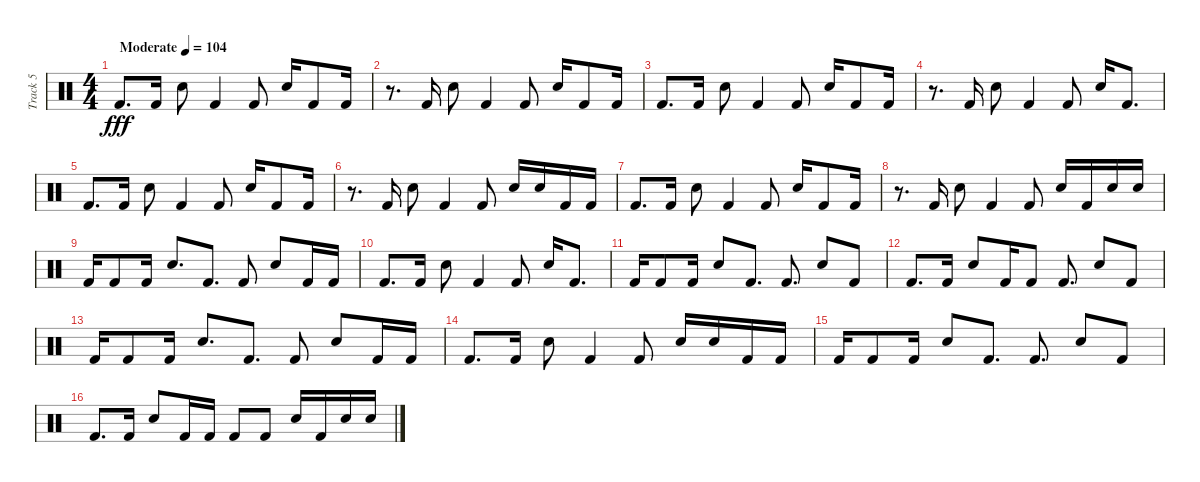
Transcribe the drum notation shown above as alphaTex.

\track ("Track 5" "Track 5") {instrument percussion}
\staff {score}
\articulation defaults
\ts (4 4)
\tempo (104 "Moderate")
\clef neutral
\ks c "Kick (hit) 2".8{d dy fff} "Kick (hit) 2".16 "Electric Snare (hit)".8 "Kick (hit) 2".4 "Kick (hit) 2".8 "Electric Snare (hit)".16 "Kick (hit) 2".8 "Kick (hit) 2".16
|
r.8{d} "Kick (hit) 2".16 "Electric Snare (hit)".8 "Kick (hit) 2".4 "Kick (hit) 2".8 "Electric Snare (hit)".16 "Kick (hit) 2".8 "Kick (hit) 2".16 |
"Kick (hit) 2".8{d} "Kick (hit) 2".16 "Electric Snare (hit)".8 "Kick (hit) 2".4 "Kick (hit) 2".8 "Electric Snare (hit)".16 "Kick (hit) 2".8 "Kick (hit) 2".16 |
r.8{d} "Kick (hit) 2".16 "Electric Snare (hit)".8 "Kick (hit) 2".4 "Kick (hit) 2".8 "Electric Snare (hit)".16 "Kick (hit) 2".8{d} |
"Kick (hit) 2".8{d} "Kick (hit) 2".16 "Electric Snare (hit)".8 "Kick (hit) 2".4 "Kick (hit) 2".8 "Electric Snare (hit)".16 "Kick (hit) 2".8 "Kick (hit) 2".16 |
r.8{d} "Kick (hit) 2".16 "Electric Snare (hit)".8 "Kick (hit) 2".4 "Kick (hit) 2".8 "Electric Snare (hit)".16 "Electric Snare (hit)".16 "Kick (hit) 2".16 "Kick (hit) 2".16 |
"Kick (hit) 2".8{d} "Kick (hit) 2".16 "Electric Snare (hit)".8 "Kick (hit) 2".4 "Kick (hit) 2".8 "Electric Snare (hit)".16 "Kick (hit) 2".8 "Kick (hit) 2".16 |
r.8{d} "Kick (hit) 2".16 "Electric Snare (hit)".8 "Kick (hit) 2".4 "Kick (hit) 2".8 "Electric Snare (hit)".16 "Kick (hit) 2".16 "Electric Snare (hit)".16 "Electric Snare (hit)".16 |
"Kick (hit) 2".16 "Kick (hit) 2".8 "Kick (hit) 2".16 "Electric Snare (hit)".8{d} "Kick (hit) 2".8{d} "Kick (hit) 2".8 "Electric Snare (hit)".8 "Kick (hit) 2".16 "Kick (hit) 2".16 |
"Kick (hit) 2".8{d} "Kick (hit) 2".16 "Electric Snare (hit)".8 "Kick (hit) 2".4 "Kick (hit) 2".8 "Electric Snare (hit)".16 "Kick (hit) 2".8{d} |
"Kick (hit) 2".16 "Kick (hit) 2".8 "Kick (hit) 2".16 "Electric Snare (hit)".8 "Kick (hit) 2".8{d} "Kick (hit) 2".8{d} "Electric Snare (hit)".8 "Kick (hit) 2".8 |
"Kick (hit) 2".8{d} "Kick (hit) 2".16 "Electric Snare (hit)".8 "Kick (hit) 2".16 "Kick (hit) 2".8 "Kick (hit) 2".8{d} "Electric Snare (hit)".8 "Kick (hit) 2".8 |
"Kick (hit) 2".16 "Kick (hit) 2".8 "Kick (hit) 2".16 "Electric Snare (hit)".8{d} "Kick (hit) 2".8{d} "Kick (hit) 2".8 "Electric Snare (hit)".8 "Kick (hit) 2".16 "Kick (hit) 2".16 |
"Kick (hit) 2".8{d} "Kick (hit) 2".16 "Electric Snare (hit)".8 "Kick (hit) 2".4 "Kick (hit) 2".8 "Electric Snare (hit)".16 "Electric Snare (hit)".16 "Kick (hit) 2".16 "Kick (hit) 2".16 |
"Kick (hit) 2".16 "Kick (hit) 2".8 "Kick (hit) 2".16 "Electric Snare (hit)".8 "Kick (hit) 2".8{d} "Kick (hit) 2".8{d} "Electric Snare (hit)".8 "Kick (hit) 2".8 |
"Kick (hit) 2".8{d} "Kick (hit) 2".16 "Electric Snare (hit)".8 "Kick (hit) 2".16 "Kick (hit) 2".16 "Kick (hit) 2".8 "Kick (hit) 2".8 "Electric Snare (hit)".16 "Kick (hit) 2".16 "Electric Snare (hit)".16 "Electric Snare (hit)".16
